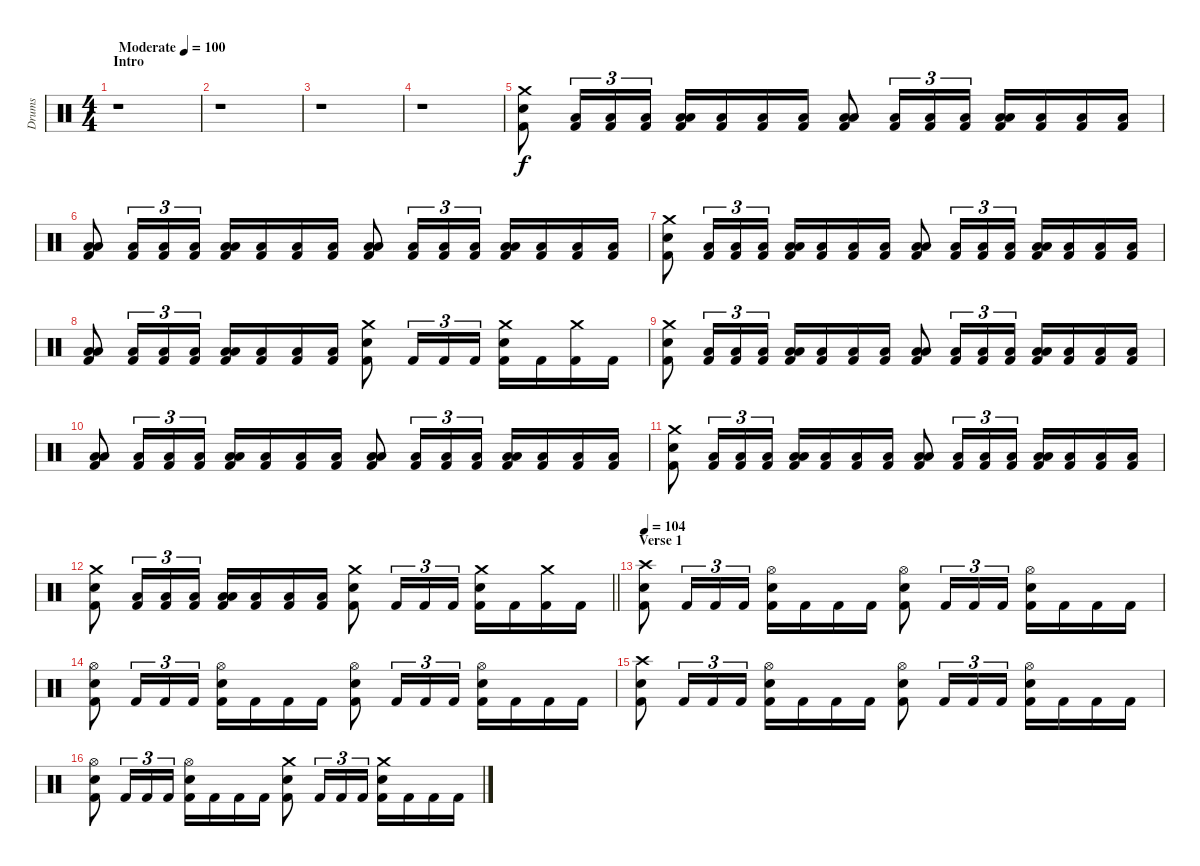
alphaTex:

\track ("Drums" "Drums") {instrument percussion}
\staff {score}
\articulation defaults
\ts (4 4)
\section ("" "Intro")
\tempo (100 "Moderate")
\clef neutral
\ks c
r.1{dy f} |
r.1 |
r.1 |
r.1 |
("Crash medium (hit)" "Electric Snare (hit)" "Kick (hit) 2").8 ("Low Floor Tom (hit)" "Kick (hit) 2").16{tu (3 2)} ("Low Floor Tom (hit)" "Kick (hit) 2").16{tu (3 2)} ("Low Floor Tom (hit)" "Kick (hit) 2").16{tu (3 2)} ("Low Tom (hit)" "Low Floor Tom (hit)" "Kick (hit) 2").16 ("Low Tom (hit)" "Kick (hit) 2").16 ("Low Tom (hit)" "Kick (hit) 2").16 ("Low Tom (hit)" "Kick (hit) 2").16 ("Low Tom (hit)" "Low Floor Tom (hit)" "Kick (hit) 2").8 ("Low Floor Tom (hit)" "Kick (hit) 2").16{tu (3 2)} ("Low Floor Tom (hit)" "Kick (hit) 2").16{tu (3 2)} ("Low Floor Tom (hit)" "Kick (hit) 2").16{tu (3 2)} ("Low Tom (hit)" "Low Floor Tom (hit)" "Kick (hit) 2").16 ("Low Tom (hit)" "Kick (hit) 2").16 ("Low Tom (hit)" "Kick (hit) 2").16 ("Low Tom (hit)" "Kick (hit) 2").16 |
("Low Tom (hit)" "Low Floor Tom (hit)" "Kick (hit) 2").8 ("Low Floor Tom (hit)" "Kick (hit) 2").16{tu (3 2)} ("Low Floor Tom (hit)" "Kick (hit) 2").16{tu (3 2)} ("Low Floor Tom (hit)" "Kick (hit) 2").16{tu (3 2)} ("Low Tom (hit)" "Low Floor Tom (hit)" "Kick (hit) 2").16 ("Low Tom (hit)" "Kick (hit) 2").16 ("Low Tom (hit)" "Kick (hit) 2").16 ("Low Tom (hit)" "Kick (hit) 2").16 ("Low Tom (hit)" "Low Floor Tom (hit)" "Kick (hit) 2").8 ("Low Floor Tom (hit)" "Kick (hit) 2").16{tu (3 2)} ("Low Floor Tom (hit)" "Kick (hit) 2").16{tu (3 2)} ("Low Floor Tom (hit)" "Kick (hit) 2").16{tu (3 2)} ("Low Tom (hit)" "Low Floor Tom (hit)" "Kick (hit) 2").16 ("Low Tom (hit)" "Kick (hit) 2").16 ("Low Tom (hit)" "Kick (hit) 2").16 ("Low Tom (hit)" "Kick (hit) 2").16 |
("Crash medium (hit)" "Electric Snare (hit)" "Kick (hit) 2").8 ("Low Floor Tom (hit)" "Kick (hit) 2").16{tu (3 2)} ("Low Floor Tom (hit)" "Kick (hit) 2").16{tu (3 2)} ("Low Floor Tom (hit)" "Kick (hit) 2").16{tu (3 2)} ("Low Tom (hit)" "Low Floor Tom (hit)" "Kick (hit) 2").16 ("Low Tom (hit)" "Kick (hit) 2").16 ("Low Tom (hit)" "Kick (hit) 2").16 ("Low Tom (hit)" "Kick (hit) 2").16 ("Low Tom (hit)" "Low Floor Tom (hit)" "Kick (hit) 2").8 ("Low Floor Tom (hit)" "Kick (hit) 2").16{tu (3 2)} ("Low Floor Tom (hit)" "Kick (hit) 2").16{tu (3 2)} ("Low Floor Tom (hit)" "Kick (hit) 2").16{tu (3 2)} ("Low Tom (hit)" "Low Floor Tom (hit)" "Kick (hit) 2").16 ("Low Tom (hit)" "Kick (hit) 2").16 ("Low Tom (hit)" "Kick (hit) 2").16 ("Low Tom (hit)" "Kick (hit) 2").16 |
("Low Tom (hit)" "Low Floor Tom (hit)" "Kick (hit) 2").8 ("Low Floor Tom (hit)" "Kick (hit) 2").16{tu (3 2)} ("Low Floor Tom (hit)" "Kick (hit) 2").16{tu (3 2)} ("Low Floor Tom (hit)" "Kick (hit) 2").16{tu (3 2)} ("Low Tom (hit)" "Low Floor Tom (hit)" "Kick (hit) 2").16 ("Low Tom (hit)" "Kick (hit) 2").16 ("Low Tom (hit)" "Kick (hit) 2").16 ("Low Tom (hit)" "Kick (hit) 2").16 ("Crash medium (hit)" "Electric Snare (hit)" "Kick (hit) 2").8 "Kick (hit) 2".16{tu (3 2)} "Kick (hit) 2".16{tu (3 2)} "Kick (hit) 2".16{tu (3 2)} ("Crash medium (hit)" "Electric Snare (hit)" "Kick (hit) 2").16 "Kick (hit) 2".16 ("Crash medium (hit)" "Kick (hit) 2").16 "Kick (hit) 2".16 |
("Crash medium (hit)" "Electric Snare (hit)" "Kick (hit) 2").8 ("Low Floor Tom (hit)" "Kick (hit) 2").16{tu (3 2)} ("Low Floor Tom (hit)" "Kick (hit) 2").16{tu (3 2)} ("Low Floor Tom (hit)" "Kick (hit) 2").16{tu (3 2)} ("Low Tom (hit)" "Low Floor Tom (hit)" "Kick (hit) 2").16 ("Low Tom (hit)" "Kick (hit) 2").16 ("Low Tom (hit)" "Kick (hit) 2").16 ("Low Tom (hit)" "Kick (hit) 2").16 ("Low Tom (hit)" "Low Floor Tom (hit)" "Kick (hit) 2").8 ("Low Floor Tom (hit)" "Kick (hit) 2").16{tu (3 2)} ("Low Floor Tom (hit)" "Kick (hit) 2").16{tu (3 2)} ("Low Floor Tom (hit)" "Kick (hit) 2").16{tu (3 2)} ("Low Tom (hit)" "Low Floor Tom (hit)" "Kick (hit) 2").16 ("Low Tom (hit)" "Kick (hit) 2").16 ("Low Tom (hit)" "Kick (hit) 2").16 ("Low Tom (hit)" "Kick (hit) 2").16 |
("Low Tom (hit)" "Low Floor Tom (hit)" "Kick (hit) 2").8 ("Low Floor Tom (hit)" "Kick (hit) 2").16{tu (3 2)} ("Low Floor Tom (hit)" "Kick (hit) 2").16{tu (3 2)} ("Low Floor Tom (hit)" "Kick (hit) 2").16{tu (3 2)} ("Low Tom (hit)" "Low Floor Tom (hit)" "Kick (hit) 2").16 ("Low Tom (hit)" "Kick (hit) 2").16 ("Low Tom (hit)" "Kick (hit) 2").16 ("Low Tom (hit)" "Kick (hit) 2").16 ("Low Tom (hit)" "Low Floor Tom (hit)" "Kick (hit) 2").8 ("Low Floor Tom (hit)" "Kick (hit) 2").16{tu (3 2)} ("Low Floor Tom (hit)" "Kick (hit) 2").16{tu (3 2)} ("Low Floor Tom (hit)" "Kick (hit) 2").16{tu (3 2)} ("Low Tom (hit)" "Low Floor Tom (hit)" "Kick (hit) 2").16 ("Low Tom (hit)" "Kick (hit) 2").16 ("Low Tom (hit)" "Kick (hit) 2").16 ("Low Tom (hit)" "Kick (hit) 2").16 |
("Crash medium (hit)" "Electric Snare (hit)" "Kick (hit) 2").8 ("Low Floor Tom (hit)" "Kick (hit) 2").16{tu (3 2)} ("Low Floor Tom (hit)" "Kick (hit) 2").16{tu (3 2)} ("Low Floor Tom (hit)" "Kick (hit) 2").16{tu (3 2)} ("Low Tom (hit)" "Low Floor Tom (hit)" "Kick (hit) 2").16 ("Low Tom (hit)" "Kick (hit) 2").16 ("Low Tom (hit)" "Kick (hit) 2").16 ("Low Tom (hit)" "Kick (hit) 2").16 ("Low Tom (hit)" "Low Floor Tom (hit)" "Kick (hit) 2").8 ("Low Floor Tom (hit)" "Kick (hit) 2").16{tu (3 2)} ("Low Floor Tom (hit)" "Kick (hit) 2").16{tu (3 2)} ("Low Floor Tom (hit)" "Kick (hit) 2").16{tu (3 2)} ("Low Tom (hit)" "Low Floor Tom (hit)" "Kick (hit) 2").16 ("Low Tom (hit)" "Kick (hit) 2").16 ("Low Tom (hit)" "Kick (hit) 2").16 ("Low Tom (hit)" "Kick (hit) 2").16 |
\barLineRight lightlight
("Crash medium (hit)" "Electric Snare (hit)" "Kick (hit) 2").8 ("Low Floor Tom (hit)" "Kick (hit) 2").16{tu (3 2)} ("Low Floor Tom (hit)" "Kick (hit) 2").16{tu (3 2)} ("Low Floor Tom (hit)" "Kick (hit) 2").16{tu (3 2)} ("Low Tom (hit)" "Low Floor Tom (hit)" "Kick (hit) 2").16 ("Low Tom (hit)" "Kick (hit) 2").16 ("Low Tom (hit)" "Kick (hit) 2").16 ("Low Tom (hit)" "Kick (hit) 2").16 ("Crash medium (hit)" "Electric Snare (hit)" "Kick (hit) 2").8 "Kick (hit) 2".16{tu (3 2)} "Kick (hit) 2".16{tu (3 2)} "Kick (hit) 2".16{tu (3 2)} ("Crash medium (hit)" "Electric Snare (hit)" "Kick (hit) 2").16 "Kick (hit) 2".16 ("Crash medium (hit)" "Kick (hit) 2").16 "Kick (hit) 2".16 |
\section ("" "Verse 1")
\tempo 104
("Crash high (hit)" "Electric Snare (hit)" "Kick (hit) 2").8 "Kick (hit) 2".16{tu (3 2)} "Kick (hit) 2".16{tu (3 2)} "Kick (hit) 2".16{tu (3 2)} ("Hi-Hat (open)" "Electric Snare (hit)" "Kick (hit) 2").16 "Kick (hit) 2".16 "Kick (hit) 2".16 "Kick (hit) 2".16 ("Hi-Hat (open)" "Electric Snare (hit)" "Kick (hit) 2").8 "Kick (hit) 2".16{tu (3 2)} "Kick (hit) 2".16{tu (3 2)} "Kick (hit) 2".16{tu (3 2)} ("Hi-Hat (open)" "Electric Snare (hit)" "Kick (hit) 2").16 "Kick (hit) 2".16 "Kick (hit) 2".16 "Kick (hit) 2".16 |
("Hi-Hat (open)" "Electric Snare (hit)" "Kick (hit) 2").8 "Kick (hit) 2".16{tu (3 2)} "Kick (hit) 2".16{tu (3 2)} "Kick (hit) 2".16{tu (3 2)} ("Hi-Hat (open)" "Electric Snare (hit)" "Kick (hit) 2").16 "Kick (hit) 2".16 "Kick (hit) 2".16 "Kick (hit) 2".16 ("Hi-Hat (open)" "Electric Snare (hit)" "Kick (hit) 2").8 "Kick (hit) 2".16{tu (3 2)} "Kick (hit) 2".16{tu (3 2)} "Kick (hit) 2".16{tu (3 2)} ("Hi-Hat (open)" "Electric Snare (hit)" "Kick (hit) 2").16 "Kick (hit) 2".16 "Kick (hit) 2".16 "Kick (hit) 2".16 |
("Crash high (hit)" "Electric Snare (hit)" "Kick (hit) 2").8 "Kick (hit) 2".16{tu (3 2)} "Kick (hit) 2".16{tu (3 2)} "Kick (hit) 2".16{tu (3 2)} ("Hi-Hat (open)" "Electric Snare (hit)" "Kick (hit) 2").16 "Kick (hit) 2".16 "Kick (hit) 2".16 "Kick (hit) 2".16 ("Hi-Hat (open)" "Electric Snare (hit)" "Kick (hit) 2").8 "Kick (hit) 2".16{tu (3 2)} "Kick (hit) 2".16{tu (3 2)} "Kick (hit) 2".16{tu (3 2)} ("Hi-Hat (open)" "Electric Snare (hit)" "Kick (hit) 2").16 "Kick (hit) 2".16 "Kick (hit) 2".16 "Kick (hit) 2".16 |
("Hi-Hat (open)" "Electric Snare (hit)" "Kick (hit) 2").8 "Kick (hit) 2".16{tu (3 2)} "Kick (hit) 2".16{tu (3 2)} "Kick (hit) 2".16{tu (3 2)} ("Hi-Hat (open)" "Electric Snare (hit)" "Kick (hit) 2").16 "Kick (hit) 2".16 "Kick (hit) 2".16 "Kick (hit) 2".16 ("Crash medium (hit)" "Electric Snare (hit)" "Kick (hit) 2").8 "Kick (hit) 2".16{tu (3 2)} "Kick (hit) 2".16{tu (3 2)} "Kick (hit) 2".16{tu (3 2)} ("Crash medium (hit)" "Electric Snare (hit)" "Kick (hit) 2").16 "Kick (hit) 2".16 "Kick (hit) 2".16 "Kick (hit) 2".16
